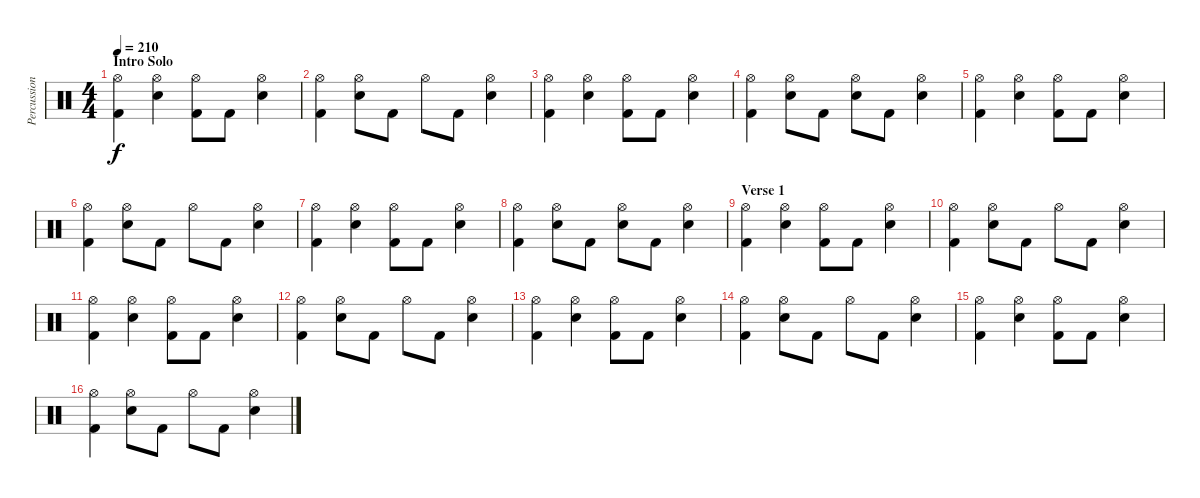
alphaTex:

\track ("Percussion" "Percussion") {instrument percussion}
\staff {score}
\articulation defaults
\ts (4 4)
\section ("" "Intro Solo")
\tempo 210
\clef neutral
\ks c
("Kick (hit) 2" "Hi-Hat (open)").4{dy f} ("Electric Snare (hit)" "Hi-Hat (open)").4 ("Kick (hit) 2" "Hi-Hat (open)").8 "Kick (hit) 2".8 ("Electric Snare (hit)" "Hi-Hat (open)").4 |
("Kick (hit) 2" "Hi-Hat (open)").4 ("Electric Snare (hit)" "Hi-Hat (open)").8 "Kick (hit) 2".8 "Hi-Hat (open)".8 "Kick (hit) 2".8 ("Electric Snare (hit)" "Hi-Hat (open)").4 |
("Kick (hit) 2" "Hi-Hat (open)").4 ("Electric Snare (hit)" "Hi-Hat (open)").4 ("Kick (hit) 2" "Hi-Hat (open)").8 "Kick (hit) 2".8 ("Electric Snare (hit)" "Hi-Hat (open)").4 |
("Kick (hit) 2" "Hi-Hat (open)").4 ("Electric Snare (hit)" "Hi-Hat (open)").8 "Kick (hit) 2".8 ("Electric Snare (hit)" "Hi-Hat (open)").8 "Kick (hit) 2".8 ("Electric Snare (hit)" "Hi-Hat (open)").4 |
("Kick (hit) 2" "Hi-Hat (open)").4 ("Electric Snare (hit)" "Hi-Hat (open)").4 ("Kick (hit) 2" "Hi-Hat (open)").8 "Kick (hit) 2".8 ("Electric Snare (hit)" "Hi-Hat (open)").4 |
("Kick (hit) 2" "Hi-Hat (open)").4 ("Electric Snare (hit)" "Hi-Hat (open)").8 "Kick (hit) 2".8 "Hi-Hat (open)".8 "Kick (hit) 2".8 ("Electric Snare (hit)" "Hi-Hat (open)").4 |
("Kick (hit) 2" "Hi-Hat (open)").4 ("Electric Snare (hit)" "Hi-Hat (open)").4 ("Kick (hit) 2" "Hi-Hat (open)").8 "Kick (hit) 2".8 ("Electric Snare (hit)" "Hi-Hat (open)").4 |
("Kick (hit) 2" "Hi-Hat (open)").4 ("Electric Snare (hit)" "Hi-Hat (open)").8 "Kick (hit) 2".8 ("Electric Snare (hit)" "Hi-Hat (open)").8 "Kick (hit) 2".8 ("Electric Snare (hit)" "Hi-Hat (open)").4 |
\section ("" "Verse 1")
("Kick (hit) 2" "Hi-Hat (open)").4 ("Electric Snare (hit)" "Hi-Hat (open)").4 ("Kick (hit) 2" "Hi-Hat (open)").8 "Kick (hit) 2".8 ("Electric Snare (hit)" "Hi-Hat (open)").4 |
("Kick (hit) 2" "Hi-Hat (open)").4 ("Electric Snare (hit)" "Hi-Hat (open)").8 "Kick (hit) 2".8 "Hi-Hat (open)".8 "Kick (hit) 2".8 ("Electric Snare (hit)" "Hi-Hat (open)").4 |
("Kick (hit) 2" "Hi-Hat (open)").4 ("Electric Snare (hit)" "Hi-Hat (open)").4 ("Kick (hit) 2" "Hi-Hat (open)").8 "Kick (hit) 2".8 ("Electric Snare (hit)" "Hi-Hat (open)").4 |
("Kick (hit) 2" "Hi-Hat (open)").4 ("Electric Snare (hit)" "Hi-Hat (open)").8 "Kick (hit) 2".8 "Hi-Hat (open)".8 "Kick (hit) 2".8 ("Electric Snare (hit)" "Hi-Hat (open)").4 |
("Kick (hit) 2" "Hi-Hat (open)").4 ("Electric Snare (hit)" "Hi-Hat (open)").4 ("Kick (hit) 2" "Hi-Hat (open)").8 "Kick (hit) 2".8 ("Electric Snare (hit)" "Hi-Hat (open)").4 |
("Kick (hit) 2" "Hi-Hat (open)").4 ("Electric Snare (hit)" "Hi-Hat (open)").8 "Kick (hit) 2".8 "Hi-Hat (open)".8 "Kick (hit) 2".8 ("Electric Snare (hit)" "Hi-Hat (open)").4 |
("Kick (hit) 2" "Hi-Hat (open)").4 ("Electric Snare (hit)" "Hi-Hat (open)").4 ("Kick (hit) 2" "Hi-Hat (open)").8 "Kick (hit) 2".8 ("Electric Snare (hit)" "Hi-Hat (open)").4 |
("Kick (hit) 2" "Hi-Hat (open)").4 ("Electric Snare (hit)" "Hi-Hat (open)").8 "Kick (hit) 2".8 "Hi-Hat (open)".8 "Kick (hit) 2".8 ("Electric Snare (hit)" "Hi-Hat (open)").4
